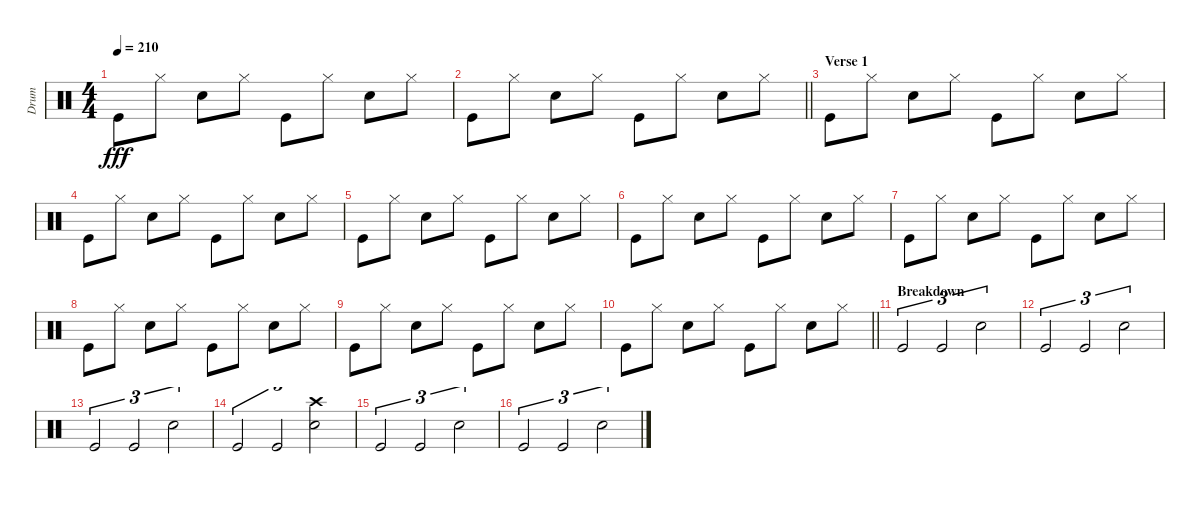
\track ("Drum" "Drum") {instrument percussion}
\staff
\articulation defaults
\ts (4 4)
\tempo 210
\clef neutral
\ks c "Kick (hit)".8{dy fff} "Hi-Hat (closed)".8 "Snare (hit) 2".8 "Hi-Hat (closed)".8 "Kick (hit)".8 "Hi-Hat (closed)".8 "Snare (hit) 2".8 "Hi-Hat (closed)".8
|
\barLineRight lightlight "Kick (hit)".8 "Hi-Hat (closed)".8 "Snare (hit) 2".8 "Hi-Hat (closed)".8 "Kick (hit)".8 "Hi-Hat (closed)".8 "Snare (hit) 2".8 "Hi-Hat (closed)".8
|
\section ("" "Verse 1")
"Kick (hit)".8 "Hi-Hat (closed)".8 "Snare (hit) 2".8 "Hi-Hat (closed)".8 "Kick (hit)".8 "Hi-Hat (closed)".8 "Snare (hit) 2".8 "Hi-Hat (closed)".8 |
"Kick (hit)".8 "Hi-Hat (closed)".8 "Snare (hit) 2".8 "Hi-Hat (closed)".8 "Kick (hit)".8 "Hi-Hat (closed)".8 "Snare (hit) 2".8 "Hi-Hat (closed)".8 |
"Kick (hit)".8 "Hi-Hat (closed)".8 "Snare (hit) 2".8 "Hi-Hat (closed)".8 "Kick (hit)".8 "Hi-Hat (closed)".8 "Snare (hit) 2".8 "Hi-Hat (closed)".8 |
"Kick (hit)".8 "Hi-Hat (closed)".8 "Snare (hit) 2".8 "Hi-Hat (closed)".8 "Kick (hit)".8 "Hi-Hat (closed)".8 "Snare (hit) 2".8 "Hi-Hat (closed)".8 |
"Kick (hit)".8 "Hi-Hat (closed)".8 "Snare (hit) 2".8 "Hi-Hat (closed)".8 "Kick (hit)".8 "Hi-Hat (closed)".8 "Snare (hit) 2".8 "Hi-Hat (closed)".8 |
"Kick (hit)".8 "Hi-Hat (closed)".8 "Snare (hit) 2".8 "Hi-Hat (closed)".8 "Kick (hit)".8 "Hi-Hat (closed)".8 "Snare (hit) 2".8 "Hi-Hat (closed)".8 |
"Kick (hit)".8 "Hi-Hat (closed)".8 "Snare (hit) 2".8 "Hi-Hat (closed)".8 "Kick (hit)".8 "Hi-Hat (closed)".8 "Snare (hit) 2".8 "Hi-Hat (closed)".8 |
\barLineRight lightlight "Kick (hit)".8 "Hi-Hat (closed)".8 "Snare (hit) 2".8 "Hi-Hat (closed)".8 "Kick (hit)".8 "Hi-Hat (closed)".8 "Snare (hit) 2".8 "Hi-Hat (closed)".8
|
\section ("" "Breakdown")
"Kick (hit)".2{tu (3 2)} "Kick (hit)".2{tu (3 2)} "Snare (hit) 2".2{tu (3 2)} |
"Kick (hit)".2{tu (3 2)} "Kick (hit)".2{tu (3 2)} "Snare (hit) 2".2{tu (3 2)} |
"Kick (hit)".2{tu (3 2)} "Kick (hit)".2{tu (3 2)} "Snare (hit) 2".2{tu (3 2)} |
"Kick (hit)".2{tu (3 2)} "Kick (hit)".2{tu (3 2)} ("Crash high (hit)" "Snare (hit) 2").2{tu (3 2)} |
"Kick (hit)".2{tu (3 2)} "Kick (hit)".2{tu (3 2)} "Snare (hit) 2".2{tu (3 2)} |
"Kick (hit)".2{tu (3 2)} "Kick (hit)".2{tu (3 2)} "Snare (hit) 2".2{tu (3 2)}
